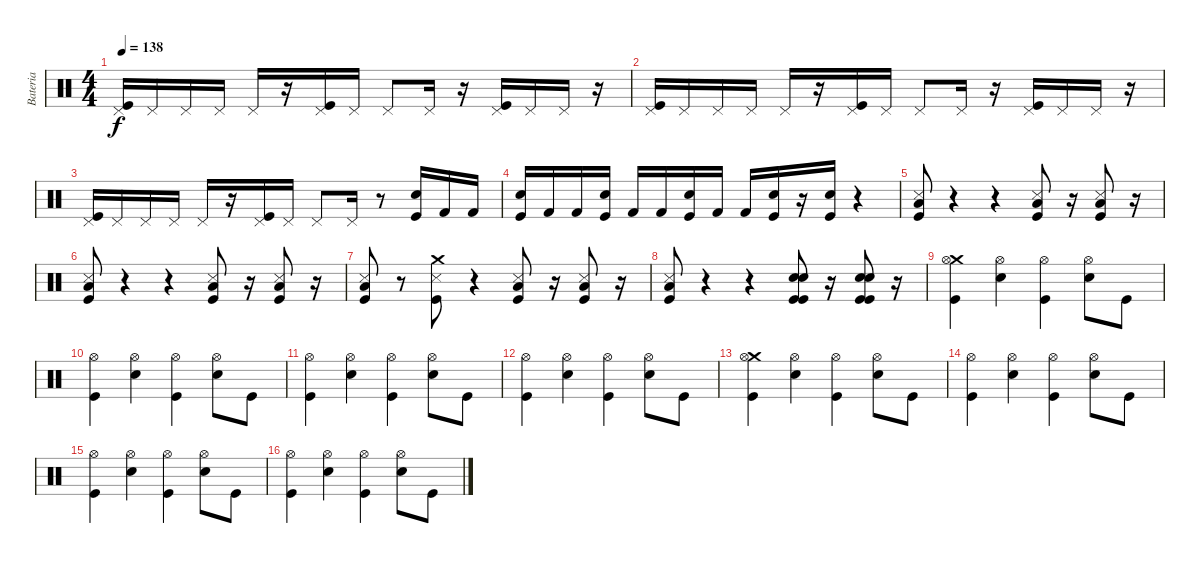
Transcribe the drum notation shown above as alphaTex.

\track ("Bateria" "Bateria") {instrument percussion}
\staff {score}
\articulation defaults
\ts (4 4)
\tempo 138
\clef neutral
\ks c
("Pedal Hi-Hat (hit)" "Kick (hit)").16{dy f} "Pedal Hi-Hat (hit)".16 "Pedal Hi-Hat (hit)".16 "Pedal Hi-Hat (hit)".16 "Pedal Hi-Hat (hit)".16 r.16 ("Pedal Hi-Hat (hit)" "Kick (hit)").16 "Pedal Hi-Hat (hit)".16 "Pedal Hi-Hat (hit)".8 "Pedal Hi-Hat (hit)".16 r.16 ("Pedal Hi-Hat (hit)" "Kick (hit)").16 "Pedal Hi-Hat (hit)".16 "Pedal Hi-Hat (hit)".16 r.16 |
("Pedal Hi-Hat (hit)" "Kick (hit)").16 "Pedal Hi-Hat (hit)".16 "Pedal Hi-Hat (hit)".16 "Pedal Hi-Hat (hit)".16 "Pedal Hi-Hat (hit)".16 r.16 ("Pedal Hi-Hat (hit)" "Kick (hit)").16 "Pedal Hi-Hat (hit)".16 "Pedal Hi-Hat (hit)".8 "Pedal Hi-Hat (hit)".16 r.16 ("Pedal Hi-Hat (hit)" "Kick (hit)").16 "Pedal Hi-Hat (hit)".16 "Pedal Hi-Hat (hit)".16 r.16 |
("Pedal Hi-Hat (hit)" "Kick (hit)").16 "Pedal Hi-Hat (hit)".16 "Pedal Hi-Hat (hit)".16 "Pedal Hi-Hat (hit)".16 "Pedal Hi-Hat (hit)".16 r.16 ("Pedal Hi-Hat (hit)" "Kick (hit)").16 "Pedal Hi-Hat (hit)".16 "Pedal Hi-Hat (hit)".8 "Pedal Hi-Hat (hit)".16 r.8 ("Snare (hit) 2" "Kick (hit)").16 "Kick (hit) 2".16 "Kick (hit) 2".16 |
("Kick (hit)" "Snare (hit) 2").16 "Kick (hit) 2".16 "Kick (hit) 2".16 ("Kick (hit)" "Snare (hit) 2").16 "Kick (hit) 2".16 "Kick (hit) 2".16 ("Kick (hit)" "Snare (hit) 2").16 "Kick (hit) 2".16 "Kick (hit) 2".16 ("Kick (hit)" "Snare (hit) 2").16 r.16 ("Kick (hit)" "Snare (hit) 2").16 r.4 |
("Snare (side stick) 3" "Low Floor Tom (hit)" "Kick (hit)").8 r.4 r.4 ("Snare (side stick) 3" "Low Floor Tom (hit)" "Kick (hit)").8 r.16 ("Snare (side stick) 3" "Low Floor Tom (hit)" "Kick (hit)").8 r.16 |
("Snare (side stick) 3" "Low Floor Tom (hit)" "Kick (hit)").8 r.4 r.4 ("Snare (side stick) 3" "Low Floor Tom (hit)" "Kick (hit)").8 r.16 ("Snare (side stick) 3" "Low Floor Tom (hit)" "Kick (hit)").8 r.16 |
("Snare (side stick) 3" "Low Floor Tom (hit)" "Kick (hit)").8 r.8 ("Crash medium (hit)" "Kick (hit)" "Snare (side stick) 3").8 r.4 ("Snare (side stick) 3" "Low Floor Tom (hit)" "Kick (hit)").8 r.16 ("Snare (side stick) 3" "Low Floor Tom (hit)" "Kick (hit)").8 r.16 |
("Snare (side stick) 3" "Low Floor Tom (hit)" "Kick (hit)").8 r.4 r.4 ("Kick (hit)" "Snare (hit) 2" "Kick (hit)" "Snare (hit) 2").8{bd 120} r.16 ("Kick (hit)" "Snare (hit) 2" "Kick (hit)" "Snare (hit) 2").8{bd 120} r.16 |
("Crash medium (hit)" "Hi-Hat (open)" "Kick (hit)").4 ("Snare (hit) 2" "Hi-Hat (open)").4 ("Hi-Hat (open)" "Kick (hit)").4 ("Snare (hit) 2" "Hi-Hat (open)").8 "Kick (hit)".8 |
("Hi-Hat (open)" "Kick (hit)").4 ("Snare (hit) 2" "Hi-Hat (open)").4 ("Hi-Hat (open)" "Kick (hit)").4 ("Snare (hit) 2" "Hi-Hat (open)").8 "Kick (hit)".8 |
("Hi-Hat (open)" "Kick (hit)").4 ("Snare (hit) 2" "Hi-Hat (open)").4 ("Hi-Hat (open)" "Kick (hit)").4 ("Snare (hit) 2" "Hi-Hat (open)").8 "Kick (hit)".8 |
("Hi-Hat (open)" "Kick (hit)").4 ("Snare (hit) 2" "Hi-Hat (open)").4 ("Hi-Hat (open)" "Kick (hit)").4 ("Snare (hit) 2" "Hi-Hat (open)").8 "Kick (hit)".8 |
("Crash medium (hit)" "Hi-Hat (open)" "Kick (hit)").4 ("Snare (hit) 2" "Hi-Hat (open)").4 ("Hi-Hat (open)" "Kick (hit)").4 ("Snare (hit) 2" "Hi-Hat (open)").8 "Kick (hit)".8 |
("Hi-Hat (open)" "Kick (hit)").4 ("Snare (hit) 2" "Hi-Hat (open)").4 ("Hi-Hat (open)" "Kick (hit)").4 ("Snare (hit) 2" "Hi-Hat (open)").8 "Kick (hit)".8 |
("Hi-Hat (open)" "Kick (hit)").4 ("Snare (hit) 2" "Hi-Hat (open)").4 ("Hi-Hat (open)" "Kick (hit)").4 ("Snare (hit) 2" "Hi-Hat (open)").8 "Kick (hit)".8 |
("Hi-Hat (open)" "Kick (hit)").4 ("Snare (hit) 2" "Hi-Hat (open)").4 ("Hi-Hat (open)" "Kick (hit)").4 ("Snare (hit) 2" "Hi-Hat (open)").8 "Kick (hit)".8
